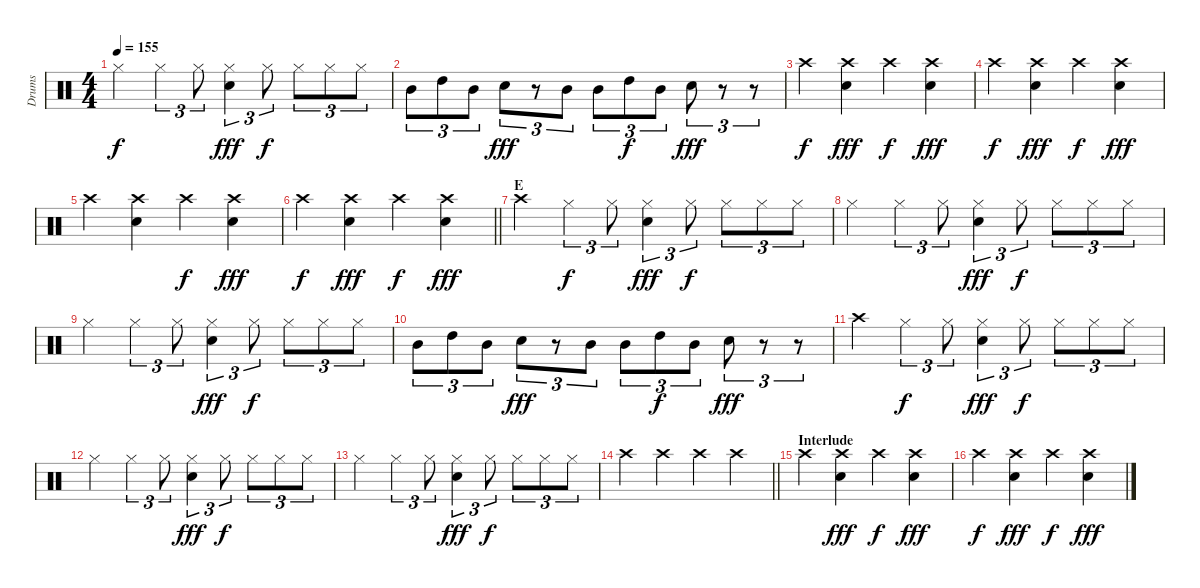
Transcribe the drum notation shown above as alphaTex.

\track ("Drums" "Drums") {instrument percussion}
\staff {score}
\articulation defaults
\ts (4 4)
\tempo 155
\clef neutral
\ks c "Hi-Hat (closed)".4{dy f} "Hi-Hat (closed)".4{tu (3 2)} "Hi-Hat (closed)".8{tu (3 2)}
("Hi-Hat (closed)" "Electric Snare (hit)").4{tu (3 2) dy fff} "Hi-Hat (closed)".8{tu (3 2) dy f} "Hi-Hat (closed)".8{tu (3 2)} "Hi-Hat (closed)".8{tu (3 2)} "Hi-Hat (closed)".8{tu (3 2)} |
"Mid Tom (hit)".8{tu (3 2)} "High Tom (hit)".8{tu (3 2)} "Mid Tom (hit)".8{tu (3 2)} "Electric Snare (hit)".8{tu (3 2) dy fff} r.8{tu (3 2)} "Mid Tom (hit)".8{tu (3 2)} "Mid Tom (hit)".8{tu (3 2)} "High Tom (hit)".8{tu (3 2) dy f} "Mid Tom (hit)".8{tu (3 2)} "Electric Snare (hit)".8{tu (3 2) dy fff} r.8{tu (3 2)} r.8{tu (3 2)} |
"Crash high (hit)".4{dy f} ("Crash high (hit)" "Electric Snare (hit)").4{dy fff} "Crash high (hit)".4{dy f} ("Crash high (hit)" "Electric Snare (hit)").4{dy fff} |
"Crash high (hit)".4{dy f} ("Crash high (hit)" "Electric Snare (hit)").4{dy fff} "Crash high (hit)".4{dy f} ("Crash high (hit)" "Electric Snare (hit)").4{dy fff} |
"Crash high (hit)".4 ("Crash high (hit)" "Electric Snare (hit)").4 "Crash high (hit)".4{dy f} ("Crash high (hit)" "Electric Snare (hit)").4{dy fff} |
\barLineRight lightlight "Crash high (hit)".4{dy f}
("Crash high (hit)" "Electric Snare (hit)").4{dy fff} "Crash high (hit)".4{dy f} ("Crash high (hit)" "Electric Snare (hit)").4{dy fff} |
\section ("" "E")
"Crash high (hit)".4 "Hi-Hat (closed)".4{tu (3 2) dy f} "Hi-Hat (closed)".8{tu (3 2)} ("Hi-Hat (closed)" "Electric Snare (hit)").4{tu (3 2) dy fff} "Hi-Hat (closed)".8{tu (3 2) dy f} "Hi-Hat (closed)".8{tu (3 2)} "Hi-Hat (closed)".8{tu (3 2)} "Hi-Hat (closed)".8{tu (3 2)} |
"Hi-Hat (closed)".4 "Hi-Hat (closed)".4{tu (3 2)} "Hi-Hat (closed)".8{tu (3 2)} ("Hi-Hat (closed)" "Electric Snare (hit)").4{tu (3 2) dy fff} "Hi-Hat (closed)".8{tu (3 2) dy f} "Hi-Hat (closed)".8{tu (3 2)} "Hi-Hat (closed)".8{tu (3 2)} "Hi-Hat (closed)".8{tu (3 2)} |
"Hi-Hat (closed)".4 "Hi-Hat (closed)".4{tu (3 2)} "Hi-Hat (closed)".8{tu (3 2)} ("Hi-Hat (closed)" "Electric Snare (hit)").4{tu (3 2) dy fff} "Hi-Hat (closed)".8{tu (3 2) dy f} "Hi-Hat (closed)".8{tu (3 2)} "Hi-Hat (closed)".8{tu (3 2)} "Hi-Hat (closed)".8{tu (3 2)} |
"Mid Tom (hit)".8{tu (3 2)} "High Tom (hit)".8{tu (3 2)} "Mid Tom (hit)".8{tu (3 2)} "Electric Snare (hit)".8{tu (3 2) dy fff} r.8{tu (3 2)} "Mid Tom (hit)".8{tu (3 2)} "Mid Tom (hit)".8{tu (3 2)} "High Tom (hit)".8{tu (3 2) dy f} "Mid Tom (hit)".8{tu (3 2)} "Electric Snare (hit)".8{tu (3 2) dy fff} r.8{tu (3 2)} r.8{tu (3 2)} |
"Crash high (hit)".4 "Hi-Hat (closed)".4{tu (3 2) dy f} "Hi-Hat (closed)".8{tu (3 2)} ("Hi-Hat (closed)" "Electric Snare (hit)").4{tu (3 2) dy fff} "Hi-Hat (closed)".8{tu (3 2) dy f} "Hi-Hat (closed)".8{tu (3 2)} "Hi-Hat (closed)".8{tu (3 2)} "Hi-Hat (closed)".8{tu (3 2)} |
"Hi-Hat (closed)".4 "Hi-Hat (closed)".4{tu (3 2)} "Hi-Hat (closed)".8{tu (3 2)} ("Hi-Hat (closed)" "Electric Snare (hit)").4{tu (3 2) dy fff} "Hi-Hat (closed)".8{tu (3 2) dy f} "Hi-Hat (closed)".8{tu (3 2)} "Hi-Hat (closed)".8{tu (3 2)} "Hi-Hat (closed)".8{tu (3 2)} |
"Hi-Hat (closed)".4 "Hi-Hat (closed)".4{tu (3 2)} "Hi-Hat (closed)".8{tu (3 2)} ("Hi-Hat (closed)" "Electric Snare (hit)").4{tu (3 2) dy fff} "Hi-Hat (closed)".8{tu (3 2) dy f} "Hi-Hat (closed)".8{tu (3 2)} "Hi-Hat (closed)".8{tu (3 2)} "Hi-Hat (closed)".8{tu (3 2)} |
\barLineRight lightlight "Crash high (hit)".4 "Crash high (hit)".4 "Crash high (hit)".4 "Crash high (hit)".4
|
\section ("" "Interlude")
"Crash high (hit)".4 ("Crash high (hit)" "Electric Snare (hit)").4{dy fff} "Crash high (hit)".4{dy f} ("Crash high (hit)" "Electric Snare (hit)").4{dy fff} |
"Crash high (hit)".4{dy f} ("Crash high (hit)" "Electric Snare (hit)").4{dy fff} "Crash high (hit)".4{dy f} ("Crash high (hit)" "Electric Snare (hit)").4{dy fff}
